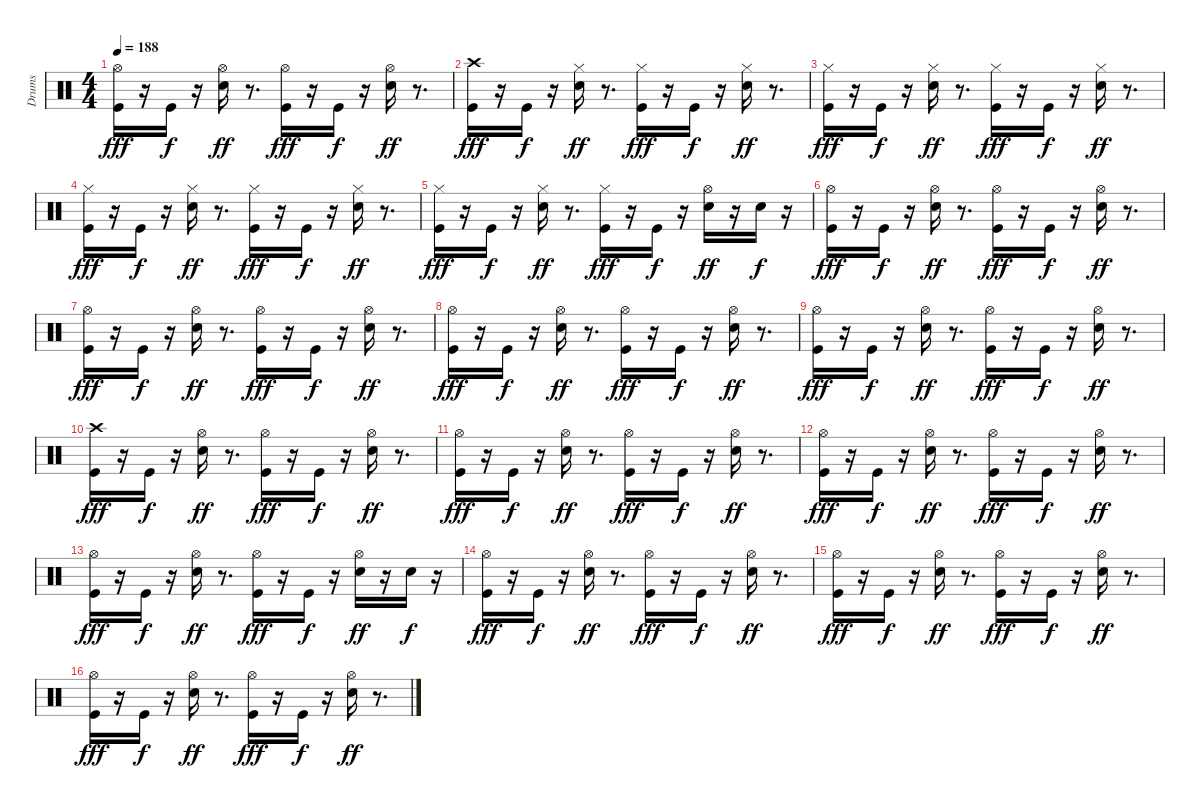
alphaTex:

\track ("Drums" "Drums") {instrument percussion}
\staff {score}
\articulation defaults
\ts (4 4)
\tempo 188
\clef neutral
\ks c
("Hi-Hat (open)" "Kick (hit)").16{dy fff} r.16 "Kick (hit)".16{dy f} r.16 ("Hi-Hat (open)" "Electric Snare (hit)").16{dy ff} r.8{d} ("Hi-Hat (open)" "Kick (hit)").16{dy fff} r.16 "Kick (hit)".16{dy f} r.16 ("Electric Snare (hit)" "Hi-Hat (open)").16{dy ff} r.8{d} |
("Crash high (hit)" "Kick (hit)").16{dy fff} r.16 "Kick (hit)".16{dy f} r.16 ("Electric Snare (hit)" "Hi-Hat (closed)").16{dy ff} r.8{d} ("Hi-Hat (closed)" "Kick (hit)").16{dy fff} r.16 "Kick (hit)".16{dy f} r.16 ("Electric Snare (hit)" "Hi-Hat (closed)").16{dy ff} r.8{d} |
("Hi-Hat (closed)" "Kick (hit)").16{dy fff} r.16 "Kick (hit)".16{dy f} r.16 ("Electric Snare (hit)" "Hi-Hat (closed)").16{dy ff} r.8{d} ("Hi-Hat (closed)" "Kick (hit)").16{dy fff} r.16 "Kick (hit)".16{dy f} r.16 ("Electric Snare (hit)" "Hi-Hat (closed)").16{dy ff} r.8{d} |
("Hi-Hat (closed)" "Kick (hit)").16{dy fff} r.16 "Kick (hit)".16{dy f} r.16 ("Electric Snare (hit)" "Hi-Hat (closed)").16{dy ff} r.8{d} ("Hi-Hat (closed)" "Kick (hit)").16{dy fff} r.16 "Kick (hit)".16{dy f} r.16 ("Electric Snare (hit)" "Hi-Hat (closed)").16{dy ff} r.8{d} |
("Hi-Hat (closed)" "Kick (hit)").16{dy fff} r.16 "Kick (hit)".16{dy f} r.16 ("Electric Snare (hit)" "Hi-Hat (closed)").16{dy ff} r.8{d} ("Hi-Hat (closed)" "Kick (hit)").16{dy fff} r.16 "Kick (hit)".16{dy f} r.16 ("Electric Snare (hit)" "Hi-Hat (open)").16{dy ff} r.16 "Electric Snare (hit)".16{dy f} r.16 |
("Hi-Hat (open)" "Kick (hit)").16{dy fff} r.16 "Kick (hit)".16{dy f} r.16 ("Hi-Hat (open)" "Electric Snare (hit)").16{dy ff} r.8{d} ("Hi-Hat (open)" "Kick (hit)").16{dy fff} r.16 "Kick (hit)".16{dy f} r.16 ("Hi-Hat (open)" "Electric Snare (hit)").16{dy ff} r.8{d} |
("Hi-Hat (open)" "Kick (hit)").16{dy fff} r.16 "Kick (hit)".16{dy f} r.16 ("Hi-Hat (open)" "Electric Snare (hit)").16{dy ff} r.8{d} ("Hi-Hat (open)" "Kick (hit)").16{dy fff} r.16 "Kick (hit)".16{dy f} r.16 ("Hi-Hat (open)" "Electric Snare (hit)").16{dy ff} r.8{d} |
("Hi-Hat (open)" "Kick (hit)").16{dy fff} r.16 "Kick (hit)".16{dy f} r.16 ("Hi-Hat (open)" "Electric Snare (hit)").16{dy ff} r.8{d} ("Hi-Hat (open)" "Kick (hit)").16{dy fff} r.16 "Kick (hit)".16{dy f} r.16 ("Hi-Hat (open)" "Electric Snare (hit)").16{dy ff} r.8{d} |
("Hi-Hat (open)" "Kick (hit)").16{dy fff} r.16 "Kick (hit)".16{dy f} r.16 ("Hi-Hat (open)" "Electric Snare (hit)").16{dy ff} r.8{d} ("Hi-Hat (open)" "Kick (hit)").16{dy fff} r.16 "Kick (hit)".16{dy f} r.16 ("Electric Snare (hit)" "Hi-Hat (open)").16{dy ff} r.8{d} |
("Crash high (hit)" "Kick (hit)").16{dy fff} r.16 "Kick (hit)".16{dy f} r.16 ("Hi-Hat (open)" "Electric Snare (hit)").16{dy ff} r.8{d} ("Hi-Hat (open)" "Kick (hit)").16{dy fff} r.16 "Kick (hit)".16{dy f} r.16 ("Hi-Hat (open)" "Electric Snare (hit)").16{dy ff} r.8{d} |
("Hi-Hat (open)" "Kick (hit)").16{dy fff} r.16 "Kick (hit)".16{dy f} r.16 ("Hi-Hat (open)" "Electric Snare (hit)").16{dy ff} r.8{d} ("Hi-Hat (open)" "Kick (hit)").16{dy fff} r.16 "Kick (hit)".16{dy f} r.16 ("Hi-Hat (open)" "Electric Snare (hit)").16{dy ff} r.8{d} |
("Hi-Hat (open)" "Kick (hit)").16{dy fff} r.16 "Kick (hit)".16{dy f} r.16 ("Hi-Hat (open)" "Electric Snare (hit)").16{dy ff} r.8{d} ("Hi-Hat (open)" "Kick (hit)").16{dy fff} r.16 "Kick (hit)".16{dy f} r.16 ("Hi-Hat (open)" "Electric Snare (hit)").16{dy ff} r.8{d} |
("Hi-Hat (open)" "Kick (hit)").16{dy fff} r.16 "Kick (hit)".16{dy f} r.16 ("Hi-Hat (open)" "Electric Snare (hit)").16{dy ff} r.8{d} ("Hi-Hat (open)" "Kick (hit)").16{dy fff} r.16 "Kick (hit)".16{dy f} r.16 ("Electric Snare (hit)" "Hi-Hat (open)").16{dy ff} r.16 "Electric Snare (hit)".16{dy f} r.16 |
("Hi-Hat (open)" "Kick (hit)").16{dy fff} r.16 "Kick (hit)".16{dy f} r.16 ("Hi-Hat (open)" "Electric Snare (hit)").16{dy ff} r.8{d} ("Hi-Hat (open)" "Kick (hit)").16{dy fff} r.16 "Kick (hit)".16{dy f} r.16 ("Hi-Hat (open)" "Electric Snare (hit)").16{dy ff} r.8{d} |
("Hi-Hat (open)" "Kick (hit)").16{dy fff} r.16 "Kick (hit)".16{dy f} r.16 ("Hi-Hat (open)" "Electric Snare (hit)").16{dy ff} r.8{d} ("Hi-Hat (open)" "Kick (hit)").16{dy fff} r.16 "Kick (hit)".16{dy f} r.16 ("Hi-Hat (open)" "Electric Snare (hit)").16{dy ff} r.8{d} |
("Hi-Hat (open)" "Kick (hit)").16{dy fff} r.16 "Kick (hit)".16{dy f} r.16 ("Hi-Hat (open)" "Electric Snare (hit)").16{dy ff} r.8{d} ("Hi-Hat (open)" "Kick (hit)").16{dy fff} r.16 "Kick (hit)".16{dy f} r.16 ("Hi-Hat (open)" "Electric Snare (hit)").16{dy ff} r.8{d}
